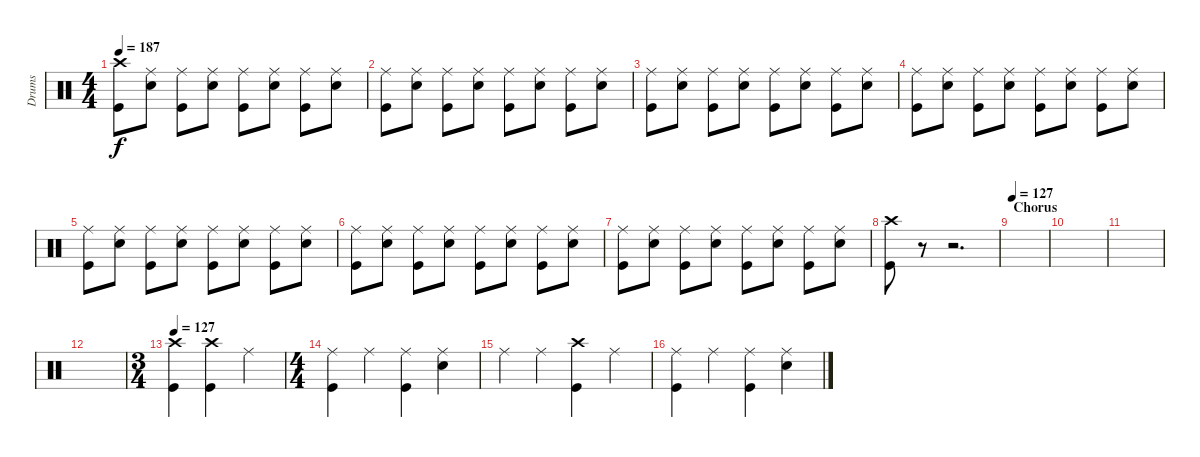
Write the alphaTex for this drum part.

\track ("Drums" "Drums") {instrument percussion}
\staff {score}
\articulation defaults
\ts (4 4)
\tempo 187
\clef neutral
\ks c
("Crash high (hit)" "Kick (hit)").8{dy f} ("Ride (middle)" "Snare (hit) 2").8 ("Ride (middle)" "Kick (hit)").8 ("Ride (middle)" "Snare (hit) 2").8 ("Ride (middle)" "Kick (hit)").8 ("Ride (middle)" "Snare (hit) 2").8 ("Ride (middle)" "Kick (hit)").8 ("Ride (middle)" "Snare (hit) 2").8 |
("Ride (middle)" "Kick (hit)").8 ("Ride (middle)" "Snare (hit) 2").8 ("Ride (middle)" "Kick (hit)").8 ("Ride (middle)" "Snare (hit) 2").8 ("Ride (middle)" "Kick (hit)").8 ("Ride (middle)" "Snare (hit) 2").8 ("Ride (middle)" "Kick (hit)").8 ("Ride (middle)" "Snare (hit) 2").8 |
("Ride (middle)" "Kick (hit)").8 ("Ride (middle)" "Snare (hit) 2").8 ("Ride (middle)" "Kick (hit)").8 ("Ride (middle)" "Snare (hit) 2").8 ("Ride (middle)" "Kick (hit)").8 ("Ride (middle)" "Snare (hit) 2").8 ("Ride (middle)" "Kick (hit)").8 ("Ride (middle)" "Snare (hit) 2").8 |
("Ride (middle)" "Kick (hit)").8 ("Ride (middle)" "Snare (hit) 2").8 ("Ride (middle)" "Kick (hit)").8 ("Ride (middle)" "Snare (hit) 2").8 ("Ride (middle)" "Kick (hit)").8 ("Ride (middle)" "Snare (hit) 2").8 ("Ride (middle)" "Kick (hit)").8 ("Ride (middle)" "Snare (hit) 2").8 |
("Ride (middle)" "Kick (hit)").8 ("Ride (middle)" "Snare (hit) 2").8 ("Ride (middle)" "Kick (hit)").8 ("Ride (middle)" "Snare (hit) 2").8 ("Ride (middle)" "Kick (hit)").8 ("Ride (middle)" "Snare (hit) 2").8 ("Ride (middle)" "Kick (hit)").8 ("Ride (middle)" "Snare (hit) 2").8 |
("Ride (middle)" "Kick (hit)").8 ("Ride (middle)" "Snare (hit) 2").8 ("Ride (middle)" "Kick (hit)").8 ("Ride (middle)" "Snare (hit) 2").8 ("Ride (middle)" "Kick (hit)").8 ("Ride (middle)" "Snare (hit) 2").8 ("Ride (middle)" "Kick (hit)").8 ("Ride (middle)" "Snare (hit) 2").8 |
("Ride (middle)" "Kick (hit)").8 ("Ride (middle)" "Snare (hit) 2").8 ("Ride (middle)" "Kick (hit)").8 ("Ride (middle)" "Snare (hit) 2").8 ("Ride (middle)" "Kick (hit)").8 ("Ride (middle)" "Snare (hit) 2").8 ("Ride (middle)" "Kick (hit)").8 ("Ride (middle)" "Snare (hit) 2").8 |
("Crash high (hit)" "Kick (hit)").8 r.8 r.2{d} |
\section ("" "Chorus")
\tempo 127
|
|
|
|
\ts (3 4)
\tempo 127
("Crash high (hit)" "Kick (hit)").4 ("Crash high (hit)" "Kick (hit)").4 "Ride (middle)".4 |
\ts (4 4)
("Ride (middle)" "Kick (hit)").4 "Ride (middle)".4 ("Ride (middle)" "Kick (hit)").4 ("Ride (middle)" "Snare (hit) 2").4 |
"Ride (middle)".4 "Ride (middle)".4 ("Crash high (hit)" "Kick (hit)").4 "Ride (middle)".4 |
("Ride (middle)" "Kick (hit)").4 "Ride (middle)".4 ("Ride (middle)" "Kick (hit)").4 ("Ride (middle)" "Snare (hit) 2").4
